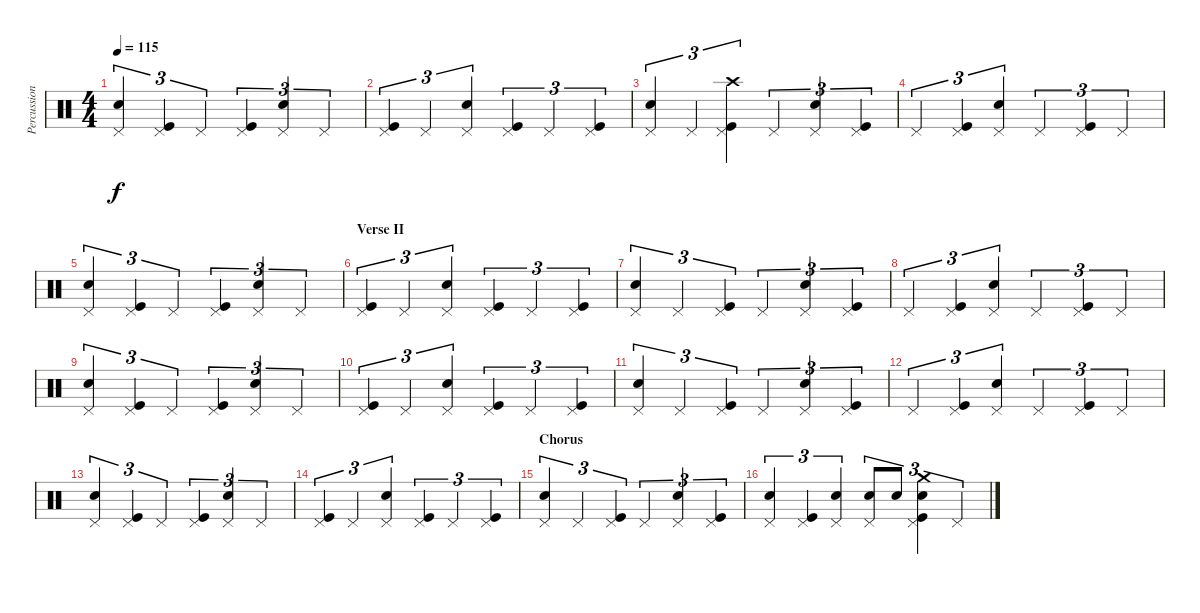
\track ("Percussion" "Percussion") {instrument percussion}
\staff {score}
\articulation defaults
\ts (4 4)
\tempo 115
\clef neutral
\ks c
("Pedal Hi-Hat (hit)" "Electric Snare (hit)").4{tu (3 2) dy f} ("Pedal Hi-Hat (hit)" "Kick (hit)").4{tu (3 2)} "Pedal Hi-Hat (hit)".4{tu (3 2)} ("Pedal Hi-Hat (hit)" "Kick (hit)").4{tu (3 2)} ("Pedal Hi-Hat (hit)" "Electric Snare (hit)").4{tu (3 2)} "Pedal Hi-Hat (hit)".4{tu (3 2)} |
("Pedal Hi-Hat (hit)" "Kick (hit)").4{tu (3 2)} "Pedal Hi-Hat (hit)".4{tu (3 2)} ("Pedal Hi-Hat (hit)" "Electric Snare (hit)").4{tu (3 2)} ("Pedal Hi-Hat (hit)" "Kick (hit)").4{tu (3 2)} "Pedal Hi-Hat (hit)".4{tu (3 2)} ("Pedal Hi-Hat (hit)" "Kick (hit)").4{tu (3 2)} |
("Pedal Hi-Hat (hit)" "Electric Snare (hit)").4{tu (3 2)} "Pedal Hi-Hat (hit)".4{tu (3 2)} ("Crash high (hit)" "Pedal Hi-Hat (hit)" "Kick (hit)").4{tu (3 2)} "Pedal Hi-Hat (hit)".4{tu (3 2)} ("Pedal Hi-Hat (hit)" "Electric Snare (hit)").4{tu (3 2)} ("Pedal Hi-Hat (hit)" "Kick (hit)").4{tu (3 2)} |
"Pedal Hi-Hat (hit)".4{tu (3 2)} ("Pedal Hi-Hat (hit)" "Kick (hit)").4{tu (3 2)} ("Pedal Hi-Hat (hit)" "Electric Snare (hit)").4{tu (3 2)} "Pedal Hi-Hat (hit)".4{tu (3 2)} ("Pedal Hi-Hat (hit)" "Kick (hit)").4{tu (3 2)} "Pedal Hi-Hat (hit)".4{tu (3 2)} |
("Pedal Hi-Hat (hit)" "Electric Snare (hit)").4{tu (3 2)} ("Pedal Hi-Hat (hit)" "Kick (hit)").4{tu (3 2)} "Pedal Hi-Hat (hit)".4{tu (3 2)} ("Pedal Hi-Hat (hit)" "Kick (hit)").4{tu (3 2)} ("Pedal Hi-Hat (hit)" "Electric Snare (hit)").4{tu (3 2)} "Pedal Hi-Hat (hit)".4{tu (3 2)} |
\section ("" "Verse II")
("Pedal Hi-Hat (hit)" "Kick (hit)").4{tu (3 2)} "Pedal Hi-Hat (hit)".4{tu (3 2)} ("Pedal Hi-Hat (hit)" "Electric Snare (hit)").4{tu (3 2)} ("Pedal Hi-Hat (hit)" "Kick (hit)").4{tu (3 2)} "Pedal Hi-Hat (hit)".4{tu (3 2)} ("Pedal Hi-Hat (hit)" "Kick (hit)").4{tu (3 2)} |
("Pedal Hi-Hat (hit)" "Electric Snare (hit)").4{tu (3 2)} "Pedal Hi-Hat (hit)".4{tu (3 2)} ("Pedal Hi-Hat (hit)" "Kick (hit)").4{tu (3 2)} "Pedal Hi-Hat (hit)".4{tu (3 2)} ("Pedal Hi-Hat (hit)" "Electric Snare (hit)").4{tu (3 2)} ("Pedal Hi-Hat (hit)" "Kick (hit)").4{tu (3 2)} |
"Pedal Hi-Hat (hit)".4{tu (3 2)} ("Pedal Hi-Hat (hit)" "Kick (hit)").4{tu (3 2)} ("Pedal Hi-Hat (hit)" "Electric Snare (hit)").4{tu (3 2)} "Pedal Hi-Hat (hit)".4{tu (3 2)} ("Pedal Hi-Hat (hit)" "Kick (hit)").4{tu (3 2)} "Pedal Hi-Hat (hit)".4{tu (3 2)} |
("Pedal Hi-Hat (hit)" "Electric Snare (hit)").4{tu (3 2)} ("Pedal Hi-Hat (hit)" "Kick (hit)").4{tu (3 2)} "Pedal Hi-Hat (hit)".4{tu (3 2)} ("Pedal Hi-Hat (hit)" "Kick (hit)").4{tu (3 2)} ("Pedal Hi-Hat (hit)" "Electric Snare (hit)").4{tu (3 2)} "Pedal Hi-Hat (hit)".4{tu (3 2)} |
("Pedal Hi-Hat (hit)" "Kick (hit)").4{tu (3 2)} "Pedal Hi-Hat (hit)".4{tu (3 2)} ("Pedal Hi-Hat (hit)" "Electric Snare (hit)").4{tu (3 2)} ("Pedal Hi-Hat (hit)" "Kick (hit)").4{tu (3 2)} "Pedal Hi-Hat (hit)".4{tu (3 2)} ("Pedal Hi-Hat (hit)" "Kick (hit)").4{tu (3 2)} |
("Pedal Hi-Hat (hit)" "Electric Snare (hit)").4{tu (3 2)} "Pedal Hi-Hat (hit)".4{tu (3 2)} ("Pedal Hi-Hat (hit)" "Kick (hit)").4{tu (3 2)} "Pedal Hi-Hat (hit)".4{tu (3 2)} ("Pedal Hi-Hat (hit)" "Electric Snare (hit)").4{tu (3 2)} ("Pedal Hi-Hat (hit)" "Kick (hit)").4{tu (3 2)} |
"Pedal Hi-Hat (hit)".4{tu (3 2)} ("Pedal Hi-Hat (hit)" "Kick (hit)").4{tu (3 2)} ("Pedal Hi-Hat (hit)" "Electric Snare (hit)").4{tu (3 2)} "Pedal Hi-Hat (hit)".4{tu (3 2)} ("Pedal Hi-Hat (hit)" "Kick (hit)").4{tu (3 2)} "Pedal Hi-Hat (hit)".4{tu (3 2)} |
("Pedal Hi-Hat (hit)" "Electric Snare (hit)").4{tu (3 2)} ("Pedal Hi-Hat (hit)" "Kick (hit)").4{tu (3 2)} "Pedal Hi-Hat (hit)".4{tu (3 2)} ("Pedal Hi-Hat (hit)" "Kick (hit)").4{tu (3 2)} ("Pedal Hi-Hat (hit)" "Electric Snare (hit)").4{tu (3 2)} "Pedal Hi-Hat (hit)".4{tu (3 2)} |
("Pedal Hi-Hat (hit)" "Kick (hit)").4{tu (3 2)} "Pedal Hi-Hat (hit)".4{tu (3 2)} ("Pedal Hi-Hat (hit)" "Electric Snare (hit)").4{tu (3 2)} ("Pedal Hi-Hat (hit)" "Kick (hit)").4{tu (3 2)} "Pedal Hi-Hat (hit)".4{tu (3 2)} ("Pedal Hi-Hat (hit)" "Kick (hit)").4{tu (3 2)} |
\section ("" "Chorus")
("Pedal Hi-Hat (hit)" "Electric Snare (hit)").4{tu (3 2)} "Pedal Hi-Hat (hit)".4{tu (3 2)} ("Pedal Hi-Hat (hit)" "Kick (hit)").4{tu (3 2)} "Pedal Hi-Hat (hit)".4{tu (3 2)} ("Pedal Hi-Hat (hit)" "Electric Snare (hit)").4{tu (3 2)} ("Pedal Hi-Hat (hit)" "Kick (hit)").4{tu (3 2)} |
("Pedal Hi-Hat (hit)" "Electric Snare (hit)").4{tu (3 2)} ("Pedal Hi-Hat (hit)" "Kick (hit)").4{tu (3 2)} ("Pedal Hi-Hat (hit)" "Electric Snare (hit)").4{tu (3 2)} ("Pedal Hi-Hat (hit)" "Electric Snare (hit)").8{tu (3 2)} "Electric Snare (hit)".8{tu (3 2)} ("Crash medium (hit)" "Pedal Hi-Hat (hit)" "Electric Snare (hit)" "Kick (hit)").4{tu (3 2)} "Pedal Hi-Hat (hit)".4{tu (3 2)}
